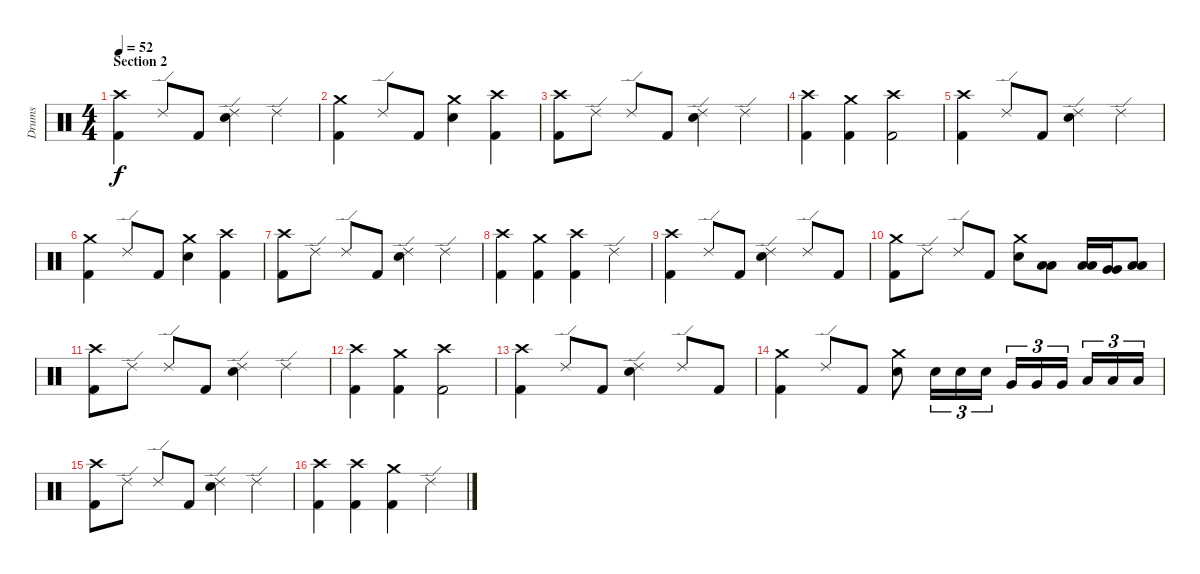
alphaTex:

\track ("Drums" "Drums") {instrument percussion}
\staff {score}
\articulation defaults
\ts (4 4)
\section ("" "Section 2")
\tempo 52
\clef neutral
\ks c
("Crash high (hit)" "Kick (hit) 2").4{dy f} "Ride (edge) 2".8 "Kick (hit) 2".8 ("Ride (edge) 2" "Electric Snare (hit)").4 "Ride (edge) 2".4 |
("Crash medium (hit)" "Kick (hit) 2").4 "Ride (edge) 2".8 "Kick (hit) 2".8 ("Crash medium (hit)" "Electric Snare (hit)").4 ("Crash high (hit)" "Kick (hit) 2").4 |
("Crash high (hit)" "Kick (hit) 2").8 "Ride (edge) 2".8 "Ride (edge) 2".8 "Kick (hit) 2".8 ("Ride (edge) 2" "Electric Snare (hit)").4 "Ride (edge) 2".4 |
("Crash high (hit)" "Kick (hit) 2").4 ("Crash medium (hit)" "Kick (hit) 2").4 ("Crash high (hit)" "Kick (hit) 2").2 |
("Crash high (hit)" "Kick (hit) 2").4 "Ride (edge) 2".8 "Kick (hit) 2".8 ("Ride (edge) 2" "Electric Snare (hit)").4 "Ride (edge) 2".4 |
("Crash medium (hit)" "Kick (hit) 2").4 "Ride (edge) 2".8 "Kick (hit) 2".8 ("Crash medium (hit)" "Electric Snare (hit)").4 ("Crash high (hit)" "Kick (hit) 2").4 |
("Crash high (hit)" "Kick (hit) 2").8 "Ride (edge) 2".8 "Ride (edge) 2".8 "Kick (hit) 2".8 ("Ride (edge) 2" "Electric Snare (hit)").4 "Ride (edge) 2".4 |
("Crash high (hit)" "Kick (hit) 2").4 ("Crash medium (hit)" "Kick (hit) 2").4 ("Crash high (hit)" "Kick (hit) 2").4 "Ride (edge) 2".4 |
("Crash high (hit)" "Kick (hit) 2").4 "Ride (edge) 2".8 "Kick (hit) 2".8 ("Ride (edge) 2" "Electric Snare (hit)").4 "Ride (edge) 2".8 "Kick (hit) 2".8 |
("Crash medium (hit)" "Kick (hit) 2").8 "Ride (edge) 2".8 "Ride (edge) 2".8 "Kick (hit) 2".8 ("Crash medium (hit)" "Electric Snare (hit)").8 ("Low Tom (hit)" "Low Tom (hit)").8 ("Low Tom (hit)" "Low Tom (hit)").16 ("Very Low Tom (hit)" "Very Low Tom (hit)").16 ("Low Tom (hit)" "Low Tom (hit)").8 |
("Crash high (hit)" "Kick (hit) 2").8 "Ride (edge) 2".8 "Ride (edge) 2".8 "Kick (hit) 2".8 ("Ride (edge) 2" "Electric Snare (hit)").4 "Ride (edge) 2".4 |
("Crash high (hit)" "Kick (hit) 2").4 ("Crash medium (hit)" "Kick (hit) 2").4 ("Crash high (hit)" "Kick (hit) 2").2 |
("Crash high (hit)" "Kick (hit) 2").4 "Ride (edge) 2".8 "Kick (hit) 2".8 ("Ride (edge) 2" "Electric Snare (hit)").4 "Ride (edge) 2".8 "Kick (hit) 2".8 |
("Crash medium (hit)" "Kick (hit) 2").4 "Ride (edge) 2".8 "Kick (hit) 2".8 ("Crash medium (hit)" "Electric Snare (hit)").8 "Electric Snare (hit)".16{tu (3 2)} "Electric Snare (hit)".16{tu (3 2)} "Electric Snare (hit)".16{tu (3 2)} "Very Low Tom (hit)".16{tu (3 2)} "Very Low Tom (hit)".16{tu (3 2)} "Very Low Tom (hit)".16{tu (3 2) beam splitsecondary} "Low Tom (hit)".16{tu (3 2)} "Low Tom (hit)".16{tu (3 2)} "Low Tom (hit)".16{tu (3 2)} |
("Crash high (hit)" "Kick (hit) 2").8 "Ride (edge) 2".8 "Ride (edge) 2".8 "Kick (hit) 2".8 ("Ride (edge) 2" "Electric Snare (hit)").4 "Ride (edge) 2".4 |
("Crash high (hit)" "Kick (hit) 2").4 ("Crash high (hit)" "Kick (hit) 2").4 ("Crash medium (hit)" "Kick (hit) 2").4 "Ride (edge) 2".4
